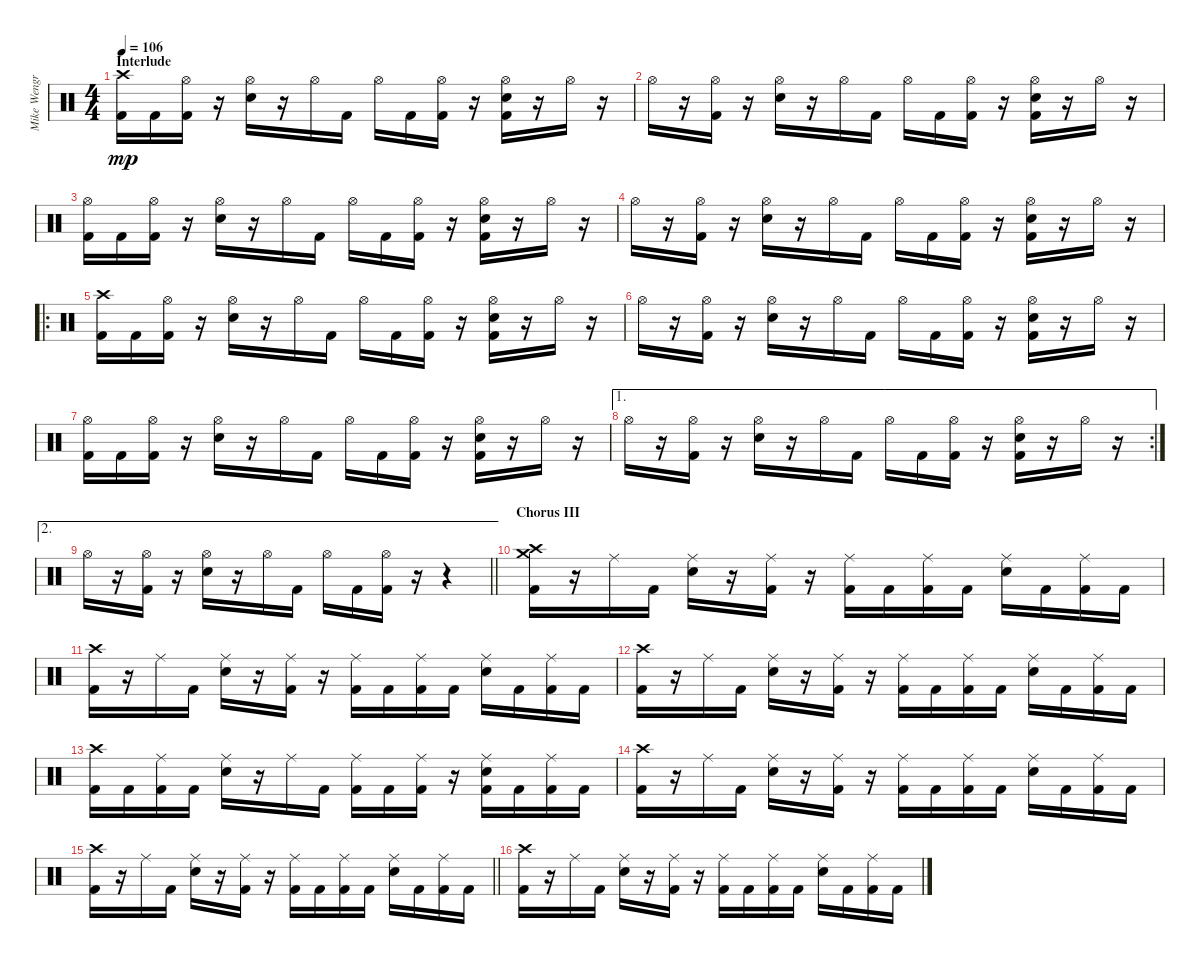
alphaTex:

\track ("Mike Wengren" "Mike Wengr") {instrument percussion}
\staff {score}
\articulation defaults
\ts (4 4)
\section ("" "Interlude")
\tempo 106
\clef neutral
\ks c
("Crash high (hit)" "Kick (hit) 2").16{dy mp} "Kick (hit) 2".16 ("Hi-Hat (open)" "Kick (hit) 2").16 r.16 ("Hi-Hat (open)" "Snare (hit) 2").16 r.16 "Hi-Hat (open)".16 "Kick (hit) 2".16 "Hi-Hat (open)".16 "Kick (hit) 2".16 ("Hi-Hat (open)" "Kick (hit) 2").16 r.16 ("Hi-Hat (open)" "Snare (hit) 2" "Kick (hit) 2").16 r.16 "Hi-Hat (open)".16 r.16 |
"Hi-Hat (open)".16 r.16 ("Hi-Hat (open)" "Kick (hit) 2").16 r.16 ("Hi-Hat (open)" "Snare (hit) 2").16 r.16 "Hi-Hat (open)".16 "Kick (hit) 2".16 "Hi-Hat (open)".16 "Kick (hit) 2".16 ("Hi-Hat (open)" "Kick (hit) 2").16 r.16 ("Hi-Hat (open)" "Snare (hit) 2" "Kick (hit) 2").16 r.16 "Hi-Hat (open)".16 r.16 |
("Hi-Hat (open)" "Kick (hit) 2").16 "Kick (hit) 2".16 ("Hi-Hat (open)" "Kick (hit) 2").16 r.16 ("Hi-Hat (open)" "Snare (hit) 2").16 r.16 "Hi-Hat (open)".16 "Kick (hit) 2".16 "Hi-Hat (open)".16 "Kick (hit) 2".16 ("Hi-Hat (open)" "Kick (hit) 2").16 r.16 ("Hi-Hat (open)" "Snare (hit) 2" "Kick (hit) 2").16 r.16 "Hi-Hat (open)".16 r.16 |
"Hi-Hat (open)".16 r.16 ("Hi-Hat (open)" "Kick (hit) 2").16 r.16 ("Hi-Hat (open)" "Snare (hit) 2").16 r.16 "Hi-Hat (open)".16 "Kick (hit) 2".16 "Hi-Hat (open)".16 "Kick (hit) 2".16 ("Hi-Hat (open)" "Kick (hit) 2").16 r.16 ("Hi-Hat (open)" "Snare (hit) 2" "Kick (hit) 2").16 r.16 "Hi-Hat (open)".16 r.16 |
\ro
("Crash high (hit)" "Kick (hit) 2").16 "Kick (hit) 2".16 ("Hi-Hat (open)" "Kick (hit) 2").16 r.16 ("Hi-Hat (open)" "Snare (hit) 2").16 r.16 "Hi-Hat (open)".16 "Kick (hit) 2".16 "Hi-Hat (open)".16 "Kick (hit) 2".16 ("Hi-Hat (open)" "Kick (hit) 2").16 r.16 ("Hi-Hat (open)" "Snare (hit) 2" "Kick (hit) 2").16 r.16 "Hi-Hat (open)".16 r.16 |
"Hi-Hat (open)".16 r.16 ("Hi-Hat (open)" "Kick (hit) 2").16 r.16 ("Hi-Hat (open)" "Snare (hit) 2").16 r.16 "Hi-Hat (open)".16 "Kick (hit) 2".16 "Hi-Hat (open)".16 "Kick (hit) 2".16 ("Hi-Hat (open)" "Kick (hit) 2").16 r.16 ("Hi-Hat (open)" "Snare (hit) 2" "Kick (hit) 2").16 r.16 "Hi-Hat (open)".16 r.16 |
("Hi-Hat (open)" "Kick (hit) 2").16 "Kick (hit) 2".16 ("Hi-Hat (open)" "Kick (hit) 2").16 r.16 ("Hi-Hat (open)" "Snare (hit) 2").16 r.16 "Hi-Hat (open)".16 "Kick (hit) 2".16 "Hi-Hat (open)".16 "Kick (hit) 2".16 ("Hi-Hat (open)" "Kick (hit) 2").16 r.16 ("Hi-Hat (open)" "Snare (hit) 2" "Kick (hit) 2").16 r.16 "Hi-Hat (open)".16 r.16 |
\ae 1
\rc 2 "Hi-Hat (open)".16
r.16 ("Hi-Hat (open)" "Kick (hit) 2").16 r.16 ("Hi-Hat (open)" "Snare (hit) 2").16 r.16 "Hi-Hat (open)".16 "Kick (hit) 2".16 "Hi-Hat (open)".16 "Kick (hit) 2".16 ("Hi-Hat (open)" "Kick (hit) 2").16 r.16 ("Hi-Hat (open)" "Snare (hit) 2" "Kick (hit) 2").16 r.16 "Hi-Hat (open)".16 r.16 |
\ae 2
\barLineRight lightlight "Hi-Hat (open)".16
r.16 ("Hi-Hat (open)" "Kick (hit) 2").16 r.16 ("Hi-Hat (open)" "Snare (hit) 2").16 r.16 "Hi-Hat (open)".16 "Kick (hit) 2".16 "Hi-Hat (open)".16 "Kick (hit) 2".16 ("Hi-Hat (open)" "Kick (hit) 2").16 r.16 r.4 |
\section ("" "Chorus III")
("Crash high (hit)" "Crash medium (hit)" "Kick (hit) 2").16 r.16 "Ride (middle)".16 "Kick (hit) 2".16 ("Ride (middle)" "Snare (hit) 2").16 r.16 ("Ride (middle)" "Kick (hit) 2").16 r.16 ("Ride (middle)" "Kick (hit) 2").16 "Kick (hit) 2".16 ("Ride (middle)" "Kick (hit) 2").16 "Kick (hit) 2".16 ("Ride (middle)" "Snare (hit) 2").16 "Kick (hit) 2".16 ("Ride (middle)" "Kick (hit) 2").16 "Kick (hit) 2".16 |
("Crash high (hit)" "Kick (hit) 2").16 r.16 "Ride (middle)".16 "Kick (hit) 2".16 ("Ride (middle)" "Snare (hit) 2").16 r.16 ("Ride (middle)" "Kick (hit) 2").16 r.16 ("Ride (middle)" "Kick (hit) 2").16 "Kick (hit) 2".16 ("Ride (middle)" "Kick (hit) 2").16 "Kick (hit) 2".16 ("Ride (middle)" "Snare (hit) 2").16 "Kick (hit) 2".16 ("Ride (middle)" "Kick (hit) 2").16 "Kick (hit) 2".16 |
("Crash high (hit)" "Kick (hit) 2").16 r.16 "Ride (middle)".16 "Kick (hit) 2".16 ("Ride (middle)" "Snare (hit) 2").16 r.16 ("Ride (middle)" "Kick (hit) 2").16 r.16 ("Ride (middle)" "Kick (hit) 2").16 "Kick (hit) 2".16 ("Ride (middle)" "Kick (hit) 2").16 "Kick (hit) 2".16 ("Ride (middle)" "Snare (hit) 2").16 "Kick (hit) 2".16 ("Ride (middle)" "Kick (hit) 2").16 "Kick (hit) 2".16 |
("Crash high (hit)" "Kick (hit) 2").16 "Kick (hit) 2".16 ("Ride (middle)" "Kick (hit) 2").16 "Kick (hit) 2".16 ("Ride (middle)" "Snare (hit) 2").16 r.16 "Ride (middle)".16 "Kick (hit) 2".16 ("Ride (middle)" "Kick (hit) 2").16 "Kick (hit) 2".16 ("Ride (middle)" "Kick (hit) 2").16 r.16 ("Ride (middle)" "Snare (hit) 2" "Kick (hit) 2").16 "Kick (hit) 2".16 ("Ride (middle)" "Kick (hit) 2").16 "Kick (hit) 2".16 |
("Crash high (hit)" "Kick (hit) 2").16 r.16 "Ride (middle)".16 "Kick (hit) 2".16 ("Ride (middle)" "Snare (hit) 2").16 r.16 ("Ride (middle)" "Kick (hit) 2").16 r.16 ("Ride (middle)" "Kick (hit) 2").16 "Kick (hit) 2".16 ("Ride (middle)" "Kick (hit) 2").16 "Kick (hit) 2".16 ("Ride (middle)" "Snare (hit) 2").16 "Kick (hit) 2".16 ("Ride (middle)" "Kick (hit) 2").16 "Kick (hit) 2".16 |
\barLineRight lightlight
("Crash high (hit)" "Kick (hit) 2").16 r.16 "Ride (middle)".16 "Kick (hit) 2".16 ("Ride (middle)" "Snare (hit) 2").16 r.16 ("Ride (middle)" "Kick (hit) 2").16 r.16 ("Ride (middle)" "Kick (hit) 2").16 "Kick (hit) 2".16 ("Ride (middle)" "Kick (hit) 2").16 "Kick (hit) 2".16 ("Ride (middle)" "Snare (hit) 2").16 "Kick (hit) 2".16 ("Ride (middle)" "Kick (hit) 2").16 "Kick (hit) 2".16 |
("Crash high (hit)" "Kick (hit) 2").16 r.16 "Ride (middle)".16 "Kick (hit) 2".16 ("Ride (middle)" "Snare (hit) 2").16 r.16 ("Ride (middle)" "Kick (hit) 2").16 r.16 ("Ride (middle)" "Kick (hit) 2").16 "Kick (hit) 2".16 ("Ride (middle)" "Kick (hit) 2").16 "Kick (hit) 2".16 ("Ride (middle)" "Snare (hit) 2").16 "Kick (hit) 2".16 ("Ride (middle)" "Kick (hit) 2").16 "Kick (hit) 2".16
